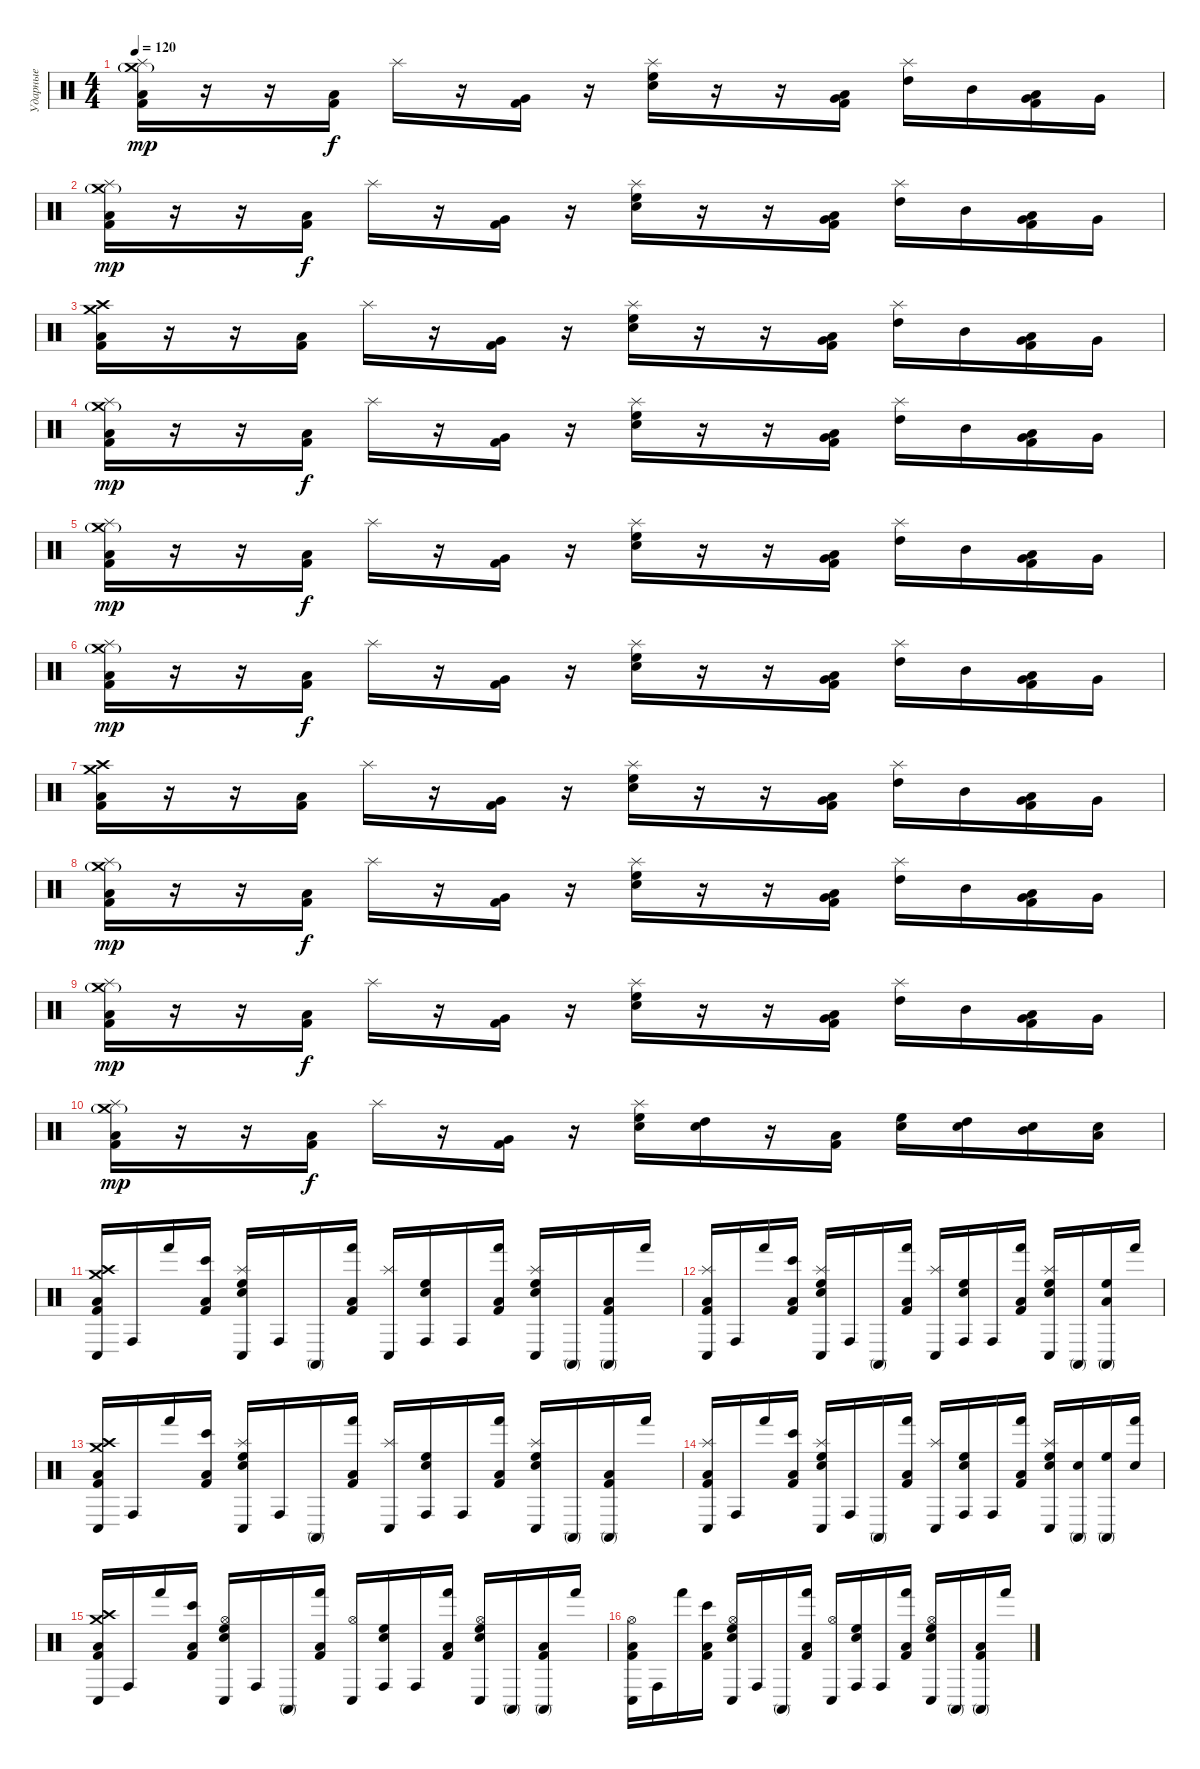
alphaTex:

\track ("Ударные" "Ударные") {instrument percussion}
\staff
\articulation defaults
\ts (4 4)
\tempo 120
\clef neutral
\ks c
("Crash medium (hit)"{g} "Splash (hit)" "Low Tom (hit)" "Kick (hit) 2").16{dy mp} r.16 r.16 ("Low Tom (hit)" "Kick (hit) 2").16{dy f} "Splash (hit)".16 r.16 ("Very Low Tom (hit)" "Kick (hit) 2").16 r.16 ("Splash (hit)" "High Floor Tom (hit)" "Electric Snare (hit)").16 r.16 r.16 ("Very Low Tom (hit)" "Low Tom (hit)" "Kick (hit) 2").16 ("Splash (hit)" "High Tom (hit)").16 "Mid Tom (hit)".16 ("Low Tom (hit)" "Very Low Tom (hit)" "Kick (hit) 2").16 "Very Low Tom (hit)".16 |
("Crash medium (hit)"{g} "Splash (hit)" "Low Tom (hit)" "Kick (hit) 2").16{dy mp} r.16 r.16 ("Low Tom (hit)" "Kick (hit) 2").16{dy f} "Splash (hit)".16 r.16 ("Very Low Tom (hit)" "Kick (hit) 2").16 r.16 ("Splash (hit)" "High Floor Tom (hit)" "Electric Snare (hit)").16 r.16 r.16 ("Very Low Tom (hit)" "Low Tom (hit)" "Kick (hit) 2").16 ("Splash (hit)" "High Tom (hit)").16 "Mid Tom (hit)".16 ("Low Tom (hit)" "Very Low Tom (hit)" "Kick (hit) 2").16 "Very Low Tom (hit)".16 |
("Crash medium (hit)" "Crash high (hit)" "Low Tom (hit)" "Kick (hit) 2").16 r.16 r.16 ("Low Tom (hit)" "Kick (hit) 2").16 "Splash (hit)".16 r.16 ("Very Low Tom (hit)" "Kick (hit) 2").16 r.16 ("Splash (hit)" "High Floor Tom (hit)" "Electric Snare (hit)").16 r.16 r.16 ("Very Low Tom (hit)" "Low Tom (hit)" "Kick (hit) 2").16 ("Splash (hit)" "High Tom (hit)").16 "Mid Tom (hit)".16 ("Low Tom (hit)" "Very Low Tom (hit)" "Kick (hit) 2").16 "Very Low Tom (hit)".16 |
("Crash medium (hit)"{g} "Splash (hit)" "Low Tom (hit)" "Kick (hit) 2").16{dy mp} r.16 r.16 ("Low Tom (hit)" "Kick (hit) 2").16{dy f} "Splash (hit)".16 r.16 ("Very Low Tom (hit)" "Kick (hit) 2").16 r.16 ("Splash (hit)" "High Floor Tom (hit)" "Electric Snare (hit)").16 r.16 r.16 ("Very Low Tom (hit)" "Low Tom (hit)" "Kick (hit) 2").16 ("Splash (hit)" "High Tom (hit)").16 "Mid Tom (hit)".16 ("Low Tom (hit)" "Very Low Tom (hit)" "Kick (hit) 2").16 "Very Low Tom (hit)".16 |
("Crash medium (hit)"{g} "Splash (hit)" "Low Tom (hit)" "Kick (hit) 2").16{dy mp} r.16 r.16 ("Low Tom (hit)" "Kick (hit) 2").16{dy f} "Splash (hit)".16 r.16 ("Very Low Tom (hit)" "Kick (hit) 2").16 r.16 ("Splash (hit)" "High Floor Tom (hit)" "Electric Snare (hit)").16 r.16 r.16 ("Very Low Tom (hit)" "Low Tom (hit)" "Kick (hit) 2").16 ("Splash (hit)" "High Tom (hit)").16 "Mid Tom (hit)".16 ("Low Tom (hit)" "Very Low Tom (hit)" "Kick (hit) 2").16 "Very Low Tom (hit)".16 |
("Crash medium (hit)"{g} "Splash (hit)" "Low Tom (hit)" "Kick (hit) 2").16{dy mp} r.16 r.16 ("Low Tom (hit)" "Kick (hit) 2").16{dy f} "Splash (hit)".16 r.16 ("Very Low Tom (hit)" "Kick (hit) 2").16 r.16 ("Splash (hit)" "High Floor Tom (hit)" "Electric Snare (hit)").16 r.16 r.16 ("Very Low Tom (hit)" "Low Tom (hit)" "Kick (hit) 2").16 ("Splash (hit)" "High Tom (hit)").16 "Mid Tom (hit)".16 ("Low Tom (hit)" "Very Low Tom (hit)" "Kick (hit) 2").16 "Very Low Tom (hit)".16 |
("Crash medium (hit)" "Crash high (hit)" "Low Tom (hit)" "Kick (hit) 2").16 r.16 r.16 ("Low Tom (hit)" "Kick (hit) 2").16 "Splash (hit)".16 r.16 ("Very Low Tom (hit)" "Kick (hit) 2").16 r.16 ("Splash (hit)" "High Floor Tom (hit)" "Electric Snare (hit)").16 r.16 r.16 ("Very Low Tom (hit)" "Low Tom (hit)" "Kick (hit) 2").16 ("Splash (hit)" "High Tom (hit)").16 "Mid Tom (hit)".16 ("Low Tom (hit)" "Very Low Tom (hit)" "Kick (hit) 2").16 "Very Low Tom (hit)".16 |
("Crash medium (hit)"{g} "Splash (hit)" "Low Tom (hit)" "Kick (hit) 2").16{dy mp} r.16 r.16 ("Low Tom (hit)" "Kick (hit) 2").16{dy f} "Splash (hit)".16 r.16 ("Very Low Tom (hit)" "Kick (hit) 2").16 r.16 ("Splash (hit)" "High Floor Tom (hit)" "Electric Snare (hit)").16 r.16 r.16 ("Very Low Tom (hit)" "Low Tom (hit)" "Kick (hit) 2").16 ("Splash (hit)" "High Tom (hit)").16 "Mid Tom (hit)".16 ("Low Tom (hit)" "Very Low Tom (hit)" "Kick (hit) 2").16 "Very Low Tom (hit)".16 |
("Crash medium (hit)"{g} "Splash (hit)" "Low Tom (hit)" "Kick (hit) 2").16{dy mp} r.16 r.16 ("Low Tom (hit)" "Kick (hit) 2").16{dy f} "Splash (hit)".16 r.16 ("Very Low Tom (hit)" "Kick (hit) 2").16 r.16 ("Splash (hit)" "High Floor Tom (hit)" "Electric Snare (hit)").16 r.16 r.16 ("Very Low Tom (hit)" "Low Tom (hit)" "Kick (hit) 2").16 ("Splash (hit)" "High Tom (hit)").16 "Mid Tom (hit)".16 ("Low Tom (hit)" "Very Low Tom (hit)" "Kick (hit) 2").16 "Very Low Tom (hit)".16 |
("Crash medium (hit)"{g} "Splash (hit)" "Low Tom (hit)" "Kick (hit) 2").16{dy mp} r.16 r.16 ("Low Tom (hit)" "Kick (hit) 2").16{dy f} "Splash (hit)".16 r.16 ("Very Low Tom (hit)" "Kick (hit) 2").16 r.16 ("Splash (hit)" "High Floor Tom (hit)" "Electric Snare (hit)").16 ("High Tom (hit)" "Electric Snare (hit)").16 r.16 ("Low Floor Tom (hit)" "Kick (hit) 2").16 ("High Floor Tom (hit)" "Electric Snare (hit)").16 ("High Tom (hit)" "Electric Snare (hit)").16 ("Mid Tom (hit)" "Electric Snare (hit)").16 ("Low Tom (hit)" "Electric Snare (hit)").16 |
("Crash medium (hit)" "Crash high (hit)" "Conga low (hit)" "Low Floor Tom (hit)" "Kick (hit) 2").16 "Conga high (hit)".16 "Hand (hit)".16 ("Bongo High (hit)" "Low Floor Tom (hit)" "Kick (hit) 2").16 ("Splash (hit)" "Conga low (hit)" "High Floor Tom (hit)" "Electric Snare (hit)").16 "Conga high (hit)".16 "Conga high (mute)".16 ("Hand (hit)" "Low Floor Tom (hit)" "Kick (hit) 2").16 ("Splash (hit)" "Conga low (hit)").16 ("Conga high (hit)" "High Floor Tom (hit)" "Electric Snare (hit)").16 "Conga high (hit)".16 ("Hand (hit)" "Low Floor Tom (hit)" "Kick (hit) 2").16 ("Splash (hit)" "Conga low (hit)" "High Floor Tom (hit)" "Electric Snare (hit)").16 "Conga high (mute)".16 ("Conga high (mute)" "Low Tom (hit)" "Kick (hit) 2").16 "Hand (hit)".16 |
("Splash (hit)" "Conga low (hit)" "Low Floor Tom (hit)" "Kick (hit) 2").16 "Conga high (hit)".16 "Hand (hit)".16 ("Bongo High (hit)" "Low Floor Tom (hit)" "Kick (hit) 2").16 ("Splash (hit)" "Conga low (hit)" "High Floor Tom (hit)" "Electric Snare (hit)").16 "Conga high (hit)".16 "Conga high (mute)".16 ("Hand (hit)" "Low Floor Tom (hit)" "Kick (hit) 2").16 ("Splash (hit)" "Conga low (hit)").16 ("Conga high (hit)" "High Floor Tom (hit)" "Electric Snare (hit)").16 "Conga high (hit)".16 ("Hand (hit)" "Low Floor Tom (hit)" "Kick (hit) 2").16 ("Splash (hit)" "Conga low (hit)" "High Floor Tom (hit)" "Electric Snare (hit)").16 "Conga high (mute)".16 ("Conga high (mute)" "Low Tom (hit)" "High Floor Tom (hit)").16 "Hand (hit)".16 |
("Crash medium (hit)" "Crash high (hit)" "Conga low (hit)" "Low Floor Tom (hit)" "Kick (hit) 2").16 "Conga high (hit)".16 "Hand (hit)".16 ("Bongo High (hit)" "Low Floor Tom (hit)" "Kick (hit) 2").16 ("Splash (hit)" "Conga low (hit)" "High Floor Tom (hit)" "Electric Snare (hit)").16 "Conga high (hit)".16 "Conga high (mute)".16 ("Hand (hit)" "Low Floor Tom (hit)" "Kick (hit) 2").16 ("Splash (hit)" "Conga low (hit)").16 ("Conga high (hit)" "High Floor Tom (hit)" "Electric Snare (hit)").16 "Conga high (hit)".16 ("Hand (hit)" "Low Floor Tom (hit)" "Kick (hit) 2").16 ("Splash (hit)" "Conga low (hit)" "High Floor Tom (hit)" "Electric Snare (hit)").16 "Conga high (mute)".16 ("Conga high (mute)" "Low Tom (hit)" "Kick (hit) 2").16 "Hand (hit)".16 |
("Splash (hit)" "Conga low (hit)" "Low Floor Tom (hit)" "Kick (hit) 2").16 "Conga high (hit)".16 "Hand (hit)".16 ("Bongo High (hit)" "Low Floor Tom (hit)" "Kick (hit) 2").16 ("Splash (hit)" "Conga low (hit)" "High Floor Tom (hit)" "Electric Snare (hit)").16 "Conga high (hit)".16 "Conga high (mute)".16 ("Hand (hit)" "Low Floor Tom (hit)" "Kick (hit) 2").16 ("Splash (hit)" "Conga low (hit)").16 ("Conga high (hit)" "High Floor Tom (hit)" "Electric Snare (hit)").16 "Conga high (hit)".16 ("Hand (hit)" "Low Floor Tom (hit)" "Kick (hit) 2").16 ("Splash (hit)" "Conga low (hit)" "High Floor Tom (hit)" "Electric Snare (hit)").16 ("Conga high (mute)" "Electric Snare (hit)").16 ("Conga high (mute)" "High Floor Tom (hit)").16 ("Hand (hit)" "Electric Snare (hit)").16 |
("Crash medium (hit)" "Crash high (hit)" "Conga low (hit)" "Low Floor Tom (hit)" "Kick (hit) 2").16 "Conga high (hit)".16 "Hand (hit)".16 ("Bongo High (hit)" "Low Floor Tom (hit)" "Kick (hit) 2").16 ("Hi-Hat (open)" "Conga low (hit)" "High Floor Tom (hit)" "Electric Snare (hit)").16 "Conga high (hit)".16 "Conga high (mute)".16 ("Hand (hit)" "Low Floor Tom (hit)" "Kick (hit) 2").16 ("Hi-Hat (open)" "Conga low (hit)").16 ("Conga high (hit)" "High Floor Tom (hit)" "Electric Snare (hit)").16 "Conga high (hit)".16 ("Hand (hit)" "Low Floor Tom (hit)" "Kick (hit) 2").16 ("Hi-Hat (open)" "Conga low (hit)" "High Floor Tom (hit)" "Electric Snare (hit)").16 "Conga high (mute)".16 ("Conga high (mute)" "Low Tom (hit)" "Kick (hit) 2").16 "Hand (hit)".16 |
("Hi-Hat (open)" "Conga low (hit)" "Low Floor Tom (hit)" "Kick (hit) 2").16 "Conga high (hit)".16 "Hand (hit)".16 ("Bongo High (hit)" "Low Floor Tom (hit)" "Kick (hit) 2").16 ("Hi-Hat (open)" "Conga low (hit)" "High Floor Tom (hit)" "Electric Snare (hit)").16 "Conga high (hit)".16 "Conga high (mute)".16 ("Hand (hit)" "Low Floor Tom (hit)" "Kick (hit) 2").16 ("Hi-Hat (open)" "Conga low (hit)").16 ("Conga high (hit)" "High Floor Tom (hit)" "Electric Snare (hit)").16 "Conga high (hit)".16 ("Hand (hit)" "Low Floor Tom (hit)" "Kick (hit) 2").16 ("Hi-Hat (open)" "Conga low (hit)" "High Floor Tom (hit)" "Electric Snare (hit)").16 "Conga high (mute)".16 ("Conga high (mute)" "Low Tom (hit)" "Kick (hit) 2").16 "Hand (hit)".16
